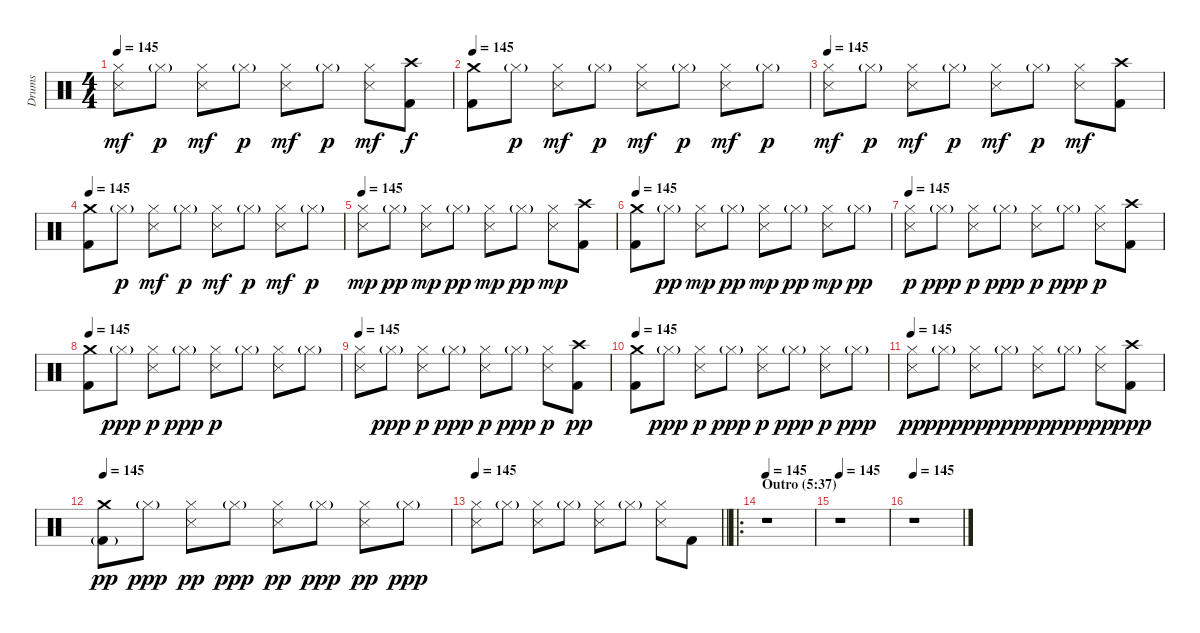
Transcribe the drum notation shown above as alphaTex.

\track ("Drums" "Drums") {instrument percussion}
\staff {score}
\articulation defaults
\ts (4 4)
\tempo 145
\clef neutral
\ks c
("Hi-Hat (closed)" "Snare (side stick) 3").8{dy mf} "Hi-Hat (closed)"{g}.8{dy p} ("Hi-Hat (closed)" "Snare (side stick) 3").8{dy mf} "Hi-Hat (closed)"{g}.8{dy p} ("Hi-Hat (closed)" "Snare (side stick) 3").8{dy mf} "Hi-Hat (closed)"{g}.8{dy p} ("Hi-Hat (closed)" "Snare (side stick) 3").8{dy mf} ("Crash high (hit)" "Kick (hit) 2").8{dy f} |
\tempo 145
("Crash medium (hit)" "Kick (hit) 2").8 "Hi-Hat (closed)"{g}.8{dy p} ("Hi-Hat (closed)" "Snare (side stick) 3").8{dy mf} "Hi-Hat (closed)"{g}.8{dy p} ("Hi-Hat (closed)" "Snare (side stick) 3").8{dy mf} "Hi-Hat (closed)"{g}.8{dy p} ("Hi-Hat (closed)" "Snare (side stick) 3").8{dy mf} "Hi-Hat (closed)"{g}.8{dy p} |
\tempo 145
("Hi-Hat (closed)" "Snare (side stick) 3").8{dy mf} "Hi-Hat (closed)"{g}.8{dy p} ("Hi-Hat (closed)" "Snare (side stick) 3").8{dy mf} "Hi-Hat (closed)"{g}.8{dy p} ("Hi-Hat (closed)" "Snare (side stick) 3").8{dy mf} "Hi-Hat (closed)"{g}.8{dy p} ("Hi-Hat (closed)" "Snare (side stick) 3").8{dy mf} ("Crash high (hit)" "Kick (hit) 2").8 |
\tempo 145
("Crash medium (hit)" "Kick (hit) 2").8 "Hi-Hat (closed)"{g}.8{dy p} ("Hi-Hat (closed)" "Snare (side stick) 3").8{dy mf} "Hi-Hat (closed)"{g}.8{dy p} ("Hi-Hat (closed)" "Snare (side stick) 3").8{dy mf} "Hi-Hat (closed)"{g}.8{dy p} ("Hi-Hat (closed)" "Snare (side stick) 3").8{dy mf} "Hi-Hat (closed)"{g}.8{dy p} |
\tempo 145
("Hi-Hat (closed)" "Snare (side stick) 3").8{dy mp} "Hi-Hat (closed)"{g}.8{dy pp} ("Hi-Hat (closed)" "Snare (side stick) 3").8{dy mp} "Hi-Hat (closed)"{g}.8{dy pp} ("Hi-Hat (closed)" "Snare (side stick) 3").8{dy mp} "Hi-Hat (closed)"{g}.8{dy pp} ("Hi-Hat (closed)" "Snare (side stick) 3").8{dy mp} ("Crash high (hit)" "Kick (hit) 2").8 |
\tempo 145
("Crash medium (hit)" "Kick (hit) 2").8 "Hi-Hat (closed)"{g}.8{dy pp} ("Hi-Hat (closed)" "Snare (side stick) 3").8{dy mp} "Hi-Hat (closed)"{g}.8{dy pp} ("Hi-Hat (closed)" "Snare (side stick) 3").8{dy mp} "Hi-Hat (closed)"{g}.8{dy pp} ("Hi-Hat (closed)" "Snare (side stick) 3").8{dy mp} "Hi-Hat (closed)"{g}.8{dy pp} |
\tempo 145
("Hi-Hat (closed)" "Snare (side stick) 3").8{dy p} "Hi-Hat (closed)"{g}.8{dy ppp} ("Hi-Hat (closed)" "Snare (side stick) 3").8{dy p} "Hi-Hat (closed)"{g}.8{dy ppp} ("Hi-Hat (closed)" "Snare (side stick) 3").8{dy p} "Hi-Hat (closed)"{g}.8{dy ppp} ("Hi-Hat (closed)" "Snare (side stick) 3").8{dy p} ("Crash high (hit)" "Kick (hit) 2").8 |
\tempo 145
("Crash medium (hit)" "Kick (hit) 2").8 "Hi-Hat (closed)"{g}.8{dy ppp} ("Hi-Hat (closed)" "Snare (side stick) 3").8{dy p} "Hi-Hat (closed)"{g}.8{dy ppp} ("Hi-Hat (closed)" "Snare (side stick) 3").8{dy p} "Hi-Hat (closed)"{g}.8 ("Hi-Hat (closed)" "Snare (side stick) 3").8 "Hi-Hat (closed)"{g}.8 |
\tempo 145
("Hi-Hat (closed)" "Snare (side stick) 3").8 "Hi-Hat (closed)"{g}.8{dy ppp} ("Hi-Hat (closed)" "Snare (side stick) 3").8{dy p} "Hi-Hat (closed)"{g}.8{dy ppp} ("Hi-Hat (closed)" "Snare (side stick) 3").8{dy p} "Hi-Hat (closed)"{g}.8{dy ppp} ("Hi-Hat (closed)" "Snare (side stick) 3").8{dy p} ("Crash high (hit)" "Kick (hit) 2").8{dy pp} |
\tempo 145
("Crash medium (hit)" "Kick (hit) 2").8 "Hi-Hat (closed)"{g}.8{dy ppp} ("Hi-Hat (closed)" "Snare (side stick) 3").8{dy p} "Hi-Hat (closed)"{g}.8{dy ppp} ("Hi-Hat (closed)" "Snare (side stick) 3").8{dy p} "Hi-Hat (closed)"{g}.8{dy ppp} ("Hi-Hat (closed)" "Snare (side stick) 3").8{dy p} "Hi-Hat (closed)"{g}.8{dy ppp} |
\tempo 145
("Hi-Hat (closed)" "Snare (side stick) 3").8{dy pp} "Hi-Hat (closed)"{g}.8{dy ppp} ("Hi-Hat (closed)" "Snare (side stick) 3").8{dy pp} "Hi-Hat (closed)"{g}.8{dy ppp} ("Hi-Hat (closed)" "Snare (side stick) 3").8{dy pp} "Hi-Hat (closed)"{g}.8{dy ppp} ("Hi-Hat (closed)" "Snare (side stick) 3").8{dy pp} ("Crash high (hit)" "Kick (hit) 2").8{dy ppp} |
\tempo 145
("Crash medium (hit)" "Kick (hit) 2"{g}).8{dy pp} "Hi-Hat (closed)"{g}.8{dy ppp} ("Hi-Hat (closed)" "Snare (side stick) 3").8{dy pp} "Hi-Hat (closed)"{g}.8{dy ppp} ("Hi-Hat (closed)" "Snare (side stick) 3").8{dy pp} "Hi-Hat (closed)"{g}.8{dy ppp} ("Hi-Hat (closed)" "Snare (side stick) 3").8{dy pp} "Hi-Hat (closed)"{g}.8{dy ppp} |
\tempo 145
\barLineRight lightlight
("Hi-Hat (closed)" "Snare (side stick) 3").8 "Hi-Hat (closed)"{g}.8 ("Hi-Hat (closed)" "Snare (side stick) 3").8 "Hi-Hat (closed)"{g}.8 ("Hi-Hat (closed)" "Snare (side stick) 3").8 "Hi-Hat (closed)"{g}.8 ("Hi-Hat (closed)" "Snare (side stick) 3").8 "Kick (hit) 2".8 |
\ro
\section ("" "Outro (5:37)")
\tempo 145
r.1 |
\tempo 145
r.1 |
\tempo 145
r.1
